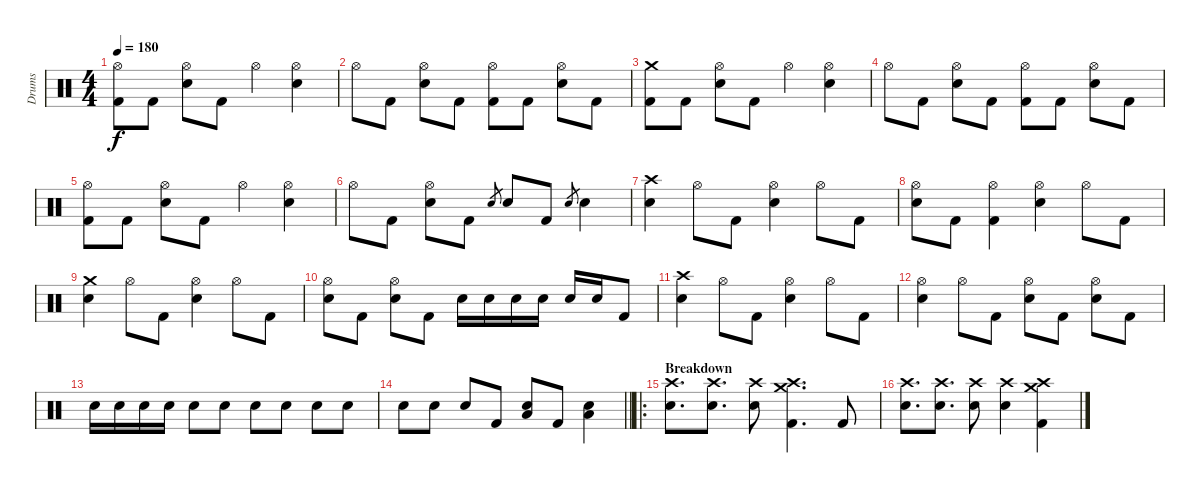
\track ("Drums" "Drums") {instrument percussion}
\staff {score}
\articulation defaults
\ts (4 4)
\tempo 180
\clef neutral
\ks c
("Hi-Hat (open)" "Kick (hit) 2").8{dy f} "Kick (hit) 2".8 ("Hi-Hat (open)" "Electric Snare (hit)").8 "Kick (hit) 2".8 "Hi-Hat (open)".4 ("Hi-Hat (open)" "Electric Snare (hit)").4 |
"Hi-Hat (open)".8 "Kick (hit) 2".8 ("Hi-Hat (open)" "Electric Snare (hit)").8 "Kick (hit) 2".8 ("Hi-Hat (open)" "Kick (hit) 2").8 "Kick (hit) 2".8 ("Hi-Hat (open)" "Electric Snare (hit)").8 "Kick (hit) 2".8 |
("Crash medium (hit)" "Kick (hit) 2").8 "Kick (hit) 2".8 ("Hi-Hat (open)" "Electric Snare (hit)").8 "Kick (hit) 2".8 "Hi-Hat (open)".4 ("Hi-Hat (open)" "Electric Snare (hit)").4 |
"Hi-Hat (open)".8 "Kick (hit) 2".8 ("Hi-Hat (open)" "Electric Snare (hit)").8 "Kick (hit) 2".8 ("Hi-Hat (open)" "Kick (hit) 2").8 "Kick (hit) 2".8 ("Hi-Hat (open)" "Electric Snare (hit)").8 "Kick (hit) 2".8 |
("Hi-Hat (open)" "Kick (hit) 2").8 "Kick (hit) 2".8 ("Hi-Hat (open)" "Electric Snare (hit)").8 "Kick (hit) 2".8 "Hi-Hat (open)".4 ("Hi-Hat (open)" "Electric Snare (hit)").4 |
"Hi-Hat (open)".8 "Kick (hit) 2".8 ("Hi-Hat (open)" "Electric Snare (hit)").8 "Kick (hit) 2".8 "Electric Snare (hit)".8{gr} "Electric Snare (hit)".8 "Kick (hit) 2".8 "Electric Snare (hit)".8{gr} "Electric Snare (hit)".4 |
("Crash high (hit)" "Electric Snare (hit)").4 "Hi-Hat (open)".8 "Kick (hit) 2".8 ("Hi-Hat (open)" "Electric Snare (hit)").4 "Hi-Hat (open)".8 "Kick (hit) 2".8 |
("Hi-Hat (open)" "Electric Snare (hit)").8 "Kick (hit) 2".8 ("Hi-Hat (open)" "Kick (hit) 2").4 ("Hi-Hat (open)" "Electric Snare (hit)").4 "Hi-Hat (open)".8 "Kick (hit) 2".8 |
("Crash medium (hit)" "Electric Snare (hit)").4 "Hi-Hat (open)".8 "Kick (hit) 2".8 ("Hi-Hat (open)" "Electric Snare (hit)").4 "Hi-Hat (open)".8 "Kick (hit) 2".8 |
("Hi-Hat (open)" "Electric Snare (hit)").8 "Kick (hit) 2".8 ("Hi-Hat (open)" "Electric Snare (hit)").8 "Kick (hit) 2".8 "Electric Snare (hit)".16 "Electric Snare (hit)".16 "Electric Snare (hit)".16 "Electric Snare (hit)".16 "Electric Snare (hit)".16 "Electric Snare (hit)".16 "Kick (hit) 2".8 |
("Crash high (hit)" "Electric Snare (hit)").4 "Hi-Hat (open)".8 "Kick (hit) 2".8 ("Hi-Hat (open)" "Electric Snare (hit)").4 "Hi-Hat (open)".8 "Kick (hit) 2".8 |
("Hi-Hat (open)" "Electric Snare (hit)").4 "Hi-Hat (open)".8 "Kick (hit) 2".8 ("Hi-Hat (open)" "Electric Snare (hit)").8 "Kick (hit) 2".8 ("Hi-Hat (open)" "Electric Snare (hit)").8 "Kick (hit) 2".8 |
"Electric Snare (hit)".16{volume 4} "Electric Snare (hit)".16{volume 14} "Electric Snare (hit)".16 "Electric Snare (hit)".16 "Electric Snare (hit)".8 "Electric Snare (hit)".8 "Electric Snare (hit)".8 "Electric Snare (hit)".8 "Electric Snare (hit)".8 "Electric Snare (hit)".8 |
\barLineRight lightlight "Electric Snare (hit)".8 "Electric Snare (hit)".8 "Electric Snare (hit)".8 "Kick (hit) 2".8
("Electric Snare (hit)" "Low Floor Tom (hit)").8 "Kick (hit) 2".8 ("Electric Snare (hit)" "Low Floor Tom (hit)").4 |
\ro
\section ("" "Breakdown")
("Crash high (hit)" "Electric Snare (hit)").8{d} ("Crash high (hit)" "Electric Snare (hit)").8{d} ("Crash high (hit)" "Electric Snare (hit)").8 ("Crash medium (hit)" "Crash high (hit)" "Kick (hit) 2").4{d} "Kick (hit) 2".8 |
("Crash high (hit)" "Electric Snare (hit)").8{d} ("Crash high (hit)" "Electric Snare (hit)").8{d} ("Crash high (hit)" "Electric Snare (hit)").8 ("Crash high (hit)" "Electric Snare (hit)").4 ("Crash medium (hit)" "Crash high (hit)" "Kick (hit) 2").4
